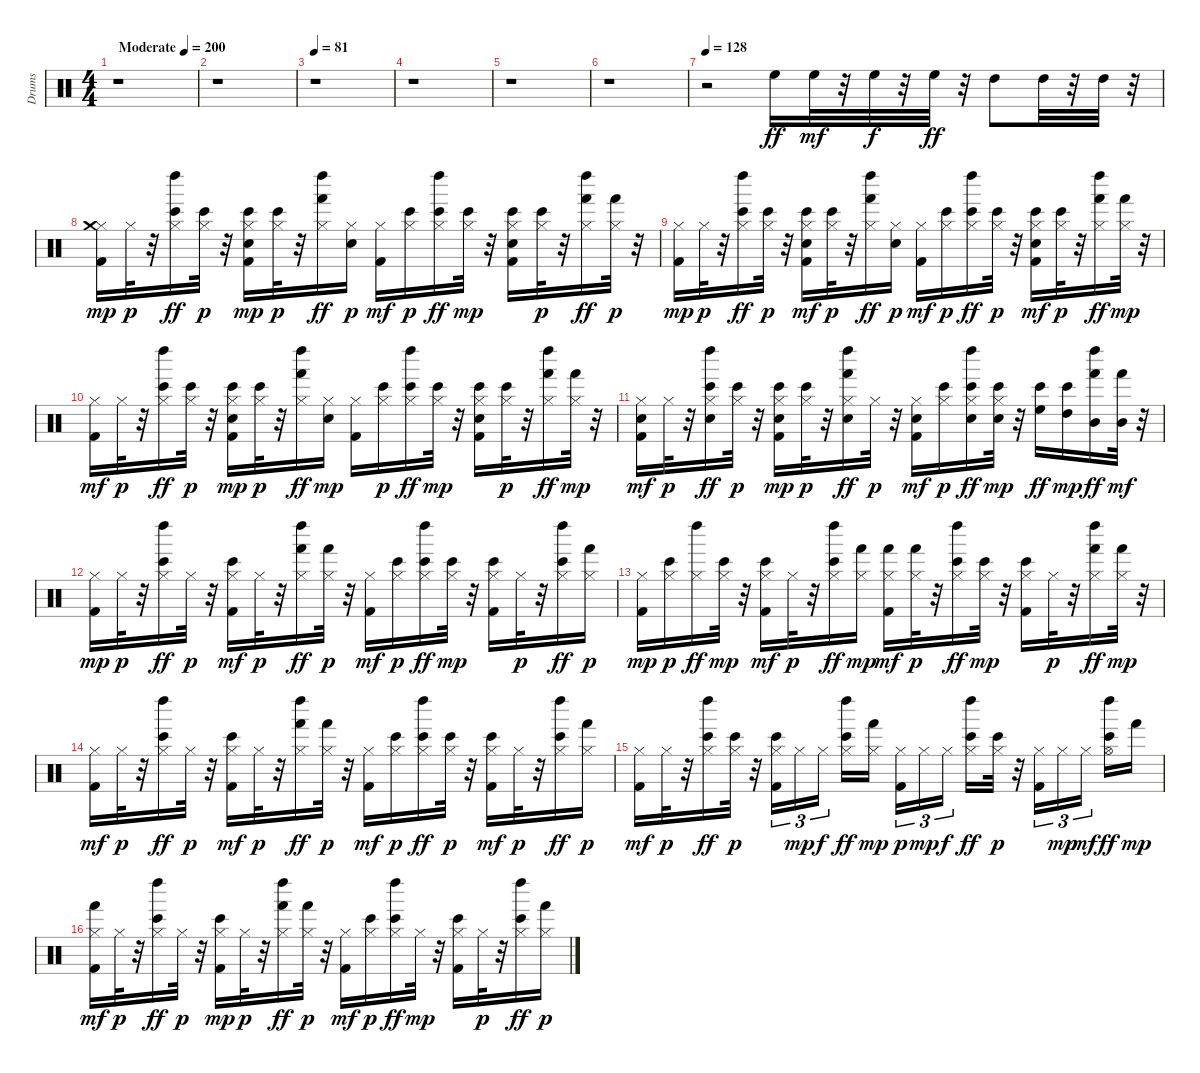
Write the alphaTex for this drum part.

\track ("Drums" "Drums") {instrument percussion}
\staff {score}
\articulation defaults
\ts (4 4)
\tempo (200 "Moderate")
\clef neutral
\ks c
r.1{dy ff} |
r.1 |
\tempo 81
r.1 |
r.1 |
r.1 |
r.1 |
\tempo 128
r.2 "High Floor Tom (hit)".16{balance 8} "High Floor Tom (hit)".32{dy mf} r.32 "High Floor Tom (hit)".32{dy f} r.32 "High Floor Tom (hit)".32{dy ff} r.32 "High Tom (hit)".8 "High Tom (hit)".32 r.32 "High Tom (hit)".32 r.32 |
("Kick (hit) 2" "Hi-Hat (closed)" "Crash medium (hit)").16{dy mp} "Hi-Hat (closed)".32{dy p} r.32 ("Bongo High (hit)" "Left Maraca (hit)" "Hi-Hat (closed)").16{dy ff} ("Bongo High (hit)" "Hi-Hat (closed)").32{dy p} r.32 ("Kick (hit) 2" "Bongo High (hit)" "Electric Snare (hit)" "Hi-Hat (closed)").16{dy mp} ("Bongo High (hit)" "Hi-Hat (closed)").32{dy p} r.32 ("Hand (hit)" "Left Maraca (hit)" "Hi-Hat (closed)").16{dy ff} ("Electric Snare (hit)" "Hi-Hat (closed)").16{dy p} ("Kick (hit) 2" "Hi-Hat (closed)").16{dy mf} ("Bongo High (hit)" "Hi-Hat (closed)").16{dy p} ("Bongo High (hit)" "Left Maraca (hit)" "Hi-Hat (closed)").16{dy ff} ("Bongo High (hit)" "Hi-Hat (closed)").32{dy mp} r.32 ("Kick (hit) 2" "Bongo High (hit)" "Electric Snare (hit)" "Hi-Hat (closed)").16 ("Bongo High (hit)" "Hi-Hat (closed)").32{dy p} r.32 ("Hand (hit)" "Left Maraca (hit)" "Hi-Hat (closed)").16{dy ff} ("Hand (hit)" "Hi-Hat (closed)").32{dy p} r.32 |
("Kick (hit) 2" "Hi-Hat (closed)").16{dy mp} "Hi-Hat (closed)".32{dy p} r.32 ("Bongo High (hit)" "Left Maraca (hit)" "Hi-Hat (closed)").16{dy ff} ("Bongo High (hit)" "Hi-Hat (closed)").32{dy p} r.32 ("Kick (hit) 2" "Bongo High (hit)" "Electric Snare (hit)" "Hi-Hat (closed)").16{dy mf} ("Bongo High (hit)" "Hi-Hat (closed)").32{dy p} r.32 ("Hand (hit)" "Left Maraca (hit)" "Hi-Hat (closed)").16{dy ff} ("Electric Snare (hit)" "Hi-Hat (closed)").16{dy p} ("Kick (hit) 2" "Hi-Hat (closed)").16{dy mf} ("Bongo High (hit)" "Hi-Hat (closed)").16{dy p} ("Bongo High (hit)" "Left Maraca (hit)" "Hi-Hat (closed)").16{dy ff} ("Bongo High (hit)" "Hi-Hat (closed)").32{dy p} r.32 ("Kick (hit) 2" "Bongo High (hit)" "Electric Snare (hit)" "Hi-Hat (closed)").16{dy mf} ("Bongo High (hit)" "Hi-Hat (closed)").32{dy p} r.32 ("Hand (hit)" "Left Maraca (hit)" "Hi-Hat (closed)").16{dy ff} ("Hand (hit)" "Hi-Hat (closed)").32{dy mp} r.32 |
("Kick (hit) 2" "Hi-Hat (closed)").16{dy mf} "Hi-Hat (closed)".32{dy p} r.32 ("Bongo High (hit)" "Left Maraca (hit)" "Hi-Hat (closed)").16{dy ff} ("Bongo High (hit)" "Hi-Hat (closed)").32{dy p} r.32 ("Kick (hit) 2" "Bongo High (hit)" "Electric Snare (hit)" "Hi-Hat (closed)").16{dy mp} ("Bongo High (hit)" "Hi-Hat (closed)").32{dy p} r.32 ("Hand (hit)" "Left Maraca (hit)" "Hi-Hat (closed)").16{dy ff} ("Electric Snare (hit)" "Hi-Hat (closed)").16{dy mp} ("Kick (hit) 2" "Hi-Hat (closed)").16 ("Bongo High (hit)" "Hi-Hat (closed)").16{dy p} ("Bongo High (hit)" "Left Maraca (hit)" "Hi-Hat (closed)").16{dy ff} ("Bongo High (hit)" "Hi-Hat (closed)").32{dy mp} r.32 ("Kick (hit) 2" "Bongo High (hit)" "Electric Snare (hit)" "Hi-Hat (closed)").16 ("Bongo High (hit)" "Hi-Hat (closed)").32{dy p} r.32 ("Hand (hit)" "Left Maraca (hit)" "Hi-Hat (closed)").16{dy ff} ("Hand (hit)" "Hi-Hat (closed)").32{dy mp} r.32 |
("Kick (hit) 2" "Electric Snare (hit)" "Hi-Hat (closed)").16{dy mf} "Hi-Hat (closed)".32{dy p} r.32 ("Bongo High (hit)" "Left Maraca (hit)" "Electric Snare (hit)" "Hi-Hat (closed)").16{dy ff} ("Bongo High (hit)" "Hi-Hat (closed)").32{dy p} r.32 ("Kick (hit) 2" "Bongo High (hit)" "Electric Snare (hit)" "Hi-Hat (closed)").16{dy mp} ("Bongo High (hit)" "Hi-Hat (closed)").32{dy p} r.32 ("Hand (hit)" "Left Maraca (hit)" "Electric Snare (hit)" "Hi-Hat (closed)").16{dy ff} "Hi-Hat (closed)".32{dy p} r.32 ("Kick (hit) 2" "Electric Snare (hit)" "Hi-Hat (closed)").16{dy mf} ("Bongo High (hit)" "Hi-Hat (closed)").16{dy p} ("Bongo High (hit)" "Left Maraca (hit)" "Electric Snare (hit)" "Hi-Hat (closed)").16{dy ff} ("Bongo High (hit)" "Electric Snare (hit)" "Hi-Hat (closed)").32{dy mp} r.32 ("Bongo High (hit)" "High Floor Tom (hit)").16{dy ff} ("Bongo High (hit)" "High Tom (hit)").16{dy mp} ("Hand (hit)" "Left Maraca (hit)" "Mid Tom (hit)").16{dy ff} ("Hand (hit)" "Mid Tom (hit)").32{dy mf} r.32 |
("Kick (hit) 2" "Hi-Hat (closed)").16{dy mp} "Hi-Hat (closed)".32{dy p} r.32 ("Bongo High (hit)" "Left Maraca (hit)" "Hi-Hat (closed)").16{dy ff} "Hi-Hat (closed)".32{dy p} r.32 ("Kick (hit) 2" "Bongo High (hit)" "Hi-Hat (closed)").16{dy mf} "Hi-Hat (closed)".32{dy p} r.32 ("Hand (hit)" "Left Maraca (hit)" "Hi-Hat (closed)").16{dy ff} ("Hand (hit)" "Hi-Hat (closed)").32{dy p} r.32 ("Kick (hit) 2" "Hi-Hat (closed)").16{dy mf} ("Bongo High (hit)" "Hi-Hat (closed)").16{dy p} ("Bongo High (hit)" "Left Maraca (hit)" "Hi-Hat (closed)").16{dy ff} ("Bongo High (hit)" "Hi-Hat (closed)").32{dy mp} r.32 ("Kick (hit) 2" "Bongo High (hit)" "Hi-Hat (closed)").16 "Hi-Hat (closed)".32{dy p} r.32 ("Bongo High (hit)" "Left Maraca (hit)" "Hi-Hat (closed)").16{dy ff} ("Hand (hit)" "Hi-Hat (closed)").16{dy p} |
("Kick (hit) 2" "Hi-Hat (closed)").16{dy mp} ("Bongo High (hit)" "Hi-Hat (closed)").16{dy p} ("Left Maraca (hit)" "Hi-Hat (closed)").16{dy ff} ("Bongo High (hit)" "Hi-Hat (closed)").32{dy mp} r.32 ("Kick (hit) 2" "Bongo High (hit)" "Hi-Hat (closed)").16{dy mf} "Hi-Hat (closed)".32{dy p} r.32 ("Bongo High (hit)" "Left Maraca (hit)" "Hi-Hat (closed)").16{dy ff} ("Hand (hit)" "Hi-Hat (closed)").16{dy mp} ("Kick (hit) 2" "Hand (hit)" "Hi-Hat (closed)").16{dy mf} ("Hand (hit)" "Hi-Hat (closed)").32{dy p} r.32 ("Bongo High (hit)" "Left Maraca (hit)" "Hi-Hat (closed)").16{dy ff} ("Bongo High (hit)" "Hi-Hat (closed)").32{dy mp} r.32 ("Kick (hit) 2" "Bongo High (hit)" "Hi-Hat (closed)").16 "Hi-Hat (closed)".32{dy p} r.32 ("Hand (hit)" "Left Maraca (hit)" "Hi-Hat (closed)").16{dy ff} ("Hand (hit)" "Hi-Hat (closed)").32{dy mp} r.32 |
("Kick (hit) 2" "Hi-Hat (closed)").16{dy mf} "Hi-Hat (closed)".32{dy p} r.32 ("Bongo High (hit)" "Left Maraca (hit)" "Hi-Hat (closed)").16{dy ff} "Hi-Hat (closed)".32{dy p} r.32 ("Kick (hit) 2" "Bongo High (hit)" "Hi-Hat (closed)").16{dy mf} "Hi-Hat (closed)".32{dy p} r.32 ("Hand (hit)" "Left Maraca (hit)" "Hi-Hat (closed)").16{dy ff} ("Hand (hit)" "Hi-Hat (closed)").32{dy p} r.32 ("Kick (hit) 2" "Hi-Hat (closed)").16{dy mf} ("Bongo High (hit)" "Hi-Hat (closed)").16{dy p} ("Bongo High (hit)" "Left Maraca (hit)" "Hi-Hat (closed)").16{dy ff} ("Bongo High (hit)" "Hi-Hat (closed)").32{dy p} r.32 ("Kick (hit) 2" "Bongo High (hit)" "Hi-Hat (closed)").16{dy mf} "Hi-Hat (closed)".32{dy p} r.32 ("Bongo High (hit)" "Left Maraca (hit)" "Hi-Hat (closed)").16{dy ff} ("Hand (hit)" "Hi-Hat (closed)").16{dy p} |
("Kick (hit) 2" "Hi-Hat (closed)").16{dy mf} "Hi-Hat (closed)".32{dy p} r.32 ("Bongo High (hit)" "Left Maraca (hit)" "Hi-Hat (closed)").16{dy ff} ("Bongo High (hit)" "Hi-Hat (closed)").32{dy p} r.32 ("Kick (hit) 2" "Bongo High (hit)" "Hi-Hat (closed)").16{tu (3 2)} "Hi-Hat (closed)".16{tu (3 2) dy mp} "Hi-Hat (closed)".16{tu (3 2) dy f beam splitsecondary} ("Bongo High (hit)" "Left Maraca (hit)" "Hi-Hat (closed)").16{dy ff} ("Hand (hit)" "Hi-Hat (closed)").16{dy mp} ("Kick (hit) 2" "Hi-Hat (closed)").16{tu (3 2) dy p} "Hi-Hat (closed)".16{tu (3 2) dy mp} "Hi-Hat (closed)".16{tu (3 2) dy f beam splitsecondary} ("Bongo High (hit)" "Left Maraca (hit)" "Hi-Hat (closed)").16{dy ff} ("Bongo High (hit)" "Hi-Hat (closed)").32{dy p} r.32 ("Kick (hit) 2" "Hi-Hat (closed)").16{tu (3 2)} "Hi-Hat (closed)".16{tu (3 2) dy mp} "Hi-Hat (closed)".16{tu (3 2) dy mf beam splitsecondary} ("Bongo High (hit)" "Left Maraca (hit)" "Hi-Hat (open)").16{dy ff} "Hand (hit)".16{dy mp} |
("Kick (hit) 2" "Hand (hit)" "Hi-Hat (closed)").16{dy mf} "Hi-Hat (closed)".32{dy p} r.32 ("Bongo High (hit)" "Left Maraca (hit)" "Hi-Hat (closed)").16{dy ff} "Hi-Hat (closed)".32{dy p} r.32 ("Kick (hit) 2" "Bongo High (hit)" "Hi-Hat (closed)").16{dy mp} "Hi-Hat (closed)".32{dy p} r.32 ("Hand (hit)" "Left Maraca (hit)" "Hi-Hat (closed)").16{dy ff} ("Hand (hit)" "Hi-Hat (closed)").32{dy p} r.32 ("Kick (hit) 2" "Hi-Hat (closed)").16{dy mf} ("Bongo High (hit)" "Hi-Hat (closed)").16{dy p} ("Bongo High (hit)" "Left Maraca (hit)" "Hi-Hat (closed)").16{dy ff} "Hi-Hat (closed)".32{dy mp} r.32 ("Kick (hit) 2" "Bongo High (hit)" "Hi-Hat (closed)").16 "Hi-Hat (closed)".32{dy p} r.32 ("Bongo High (hit)" "Left Maraca (hit)" "Hi-Hat (closed)").16{dy ff} ("Hand (hit)" "Hi-Hat (closed)").16{dy p}
